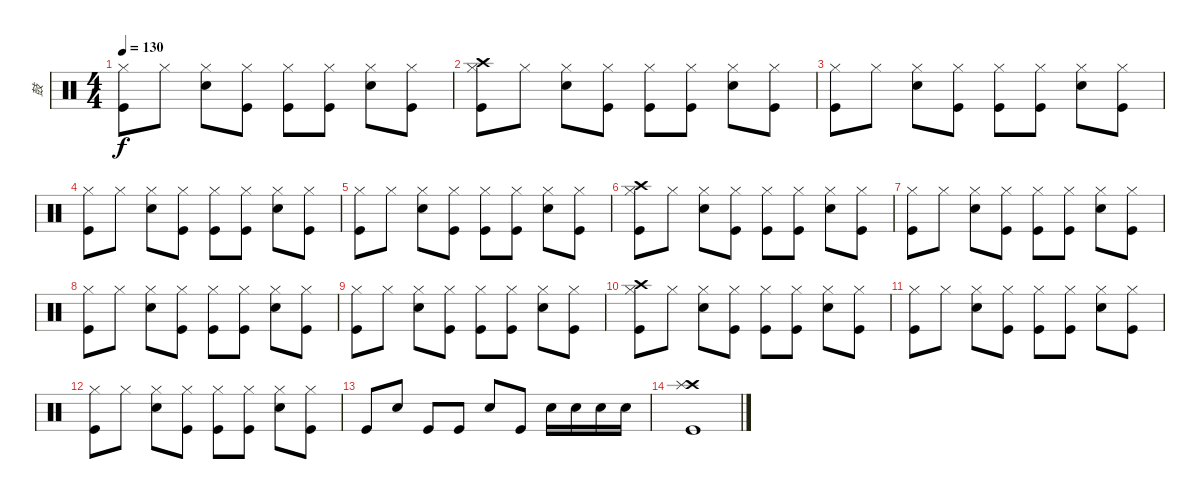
\track ("鼓" "鼓") {instrument percussion}
\staff {score}
\articulation defaults
\ts (4 4)
\tempo 130
\clef neutral
\ks c
("Hi-Hat (closed)" "Kick (hit)").8{dy f} "Hi-Hat (closed)".8 ("Hi-Hat (closed)" "Snare (hit) 2").8 ("Hi-Hat (closed)" "Kick (hit)").8 ("Hi-Hat (closed)" "Kick (hit)").8 ("Hi-Hat (closed)" "Kick (hit)").8 ("Hi-Hat (closed)" "Snare (hit) 2").8 ("Hi-Hat (closed)" "Kick (hit)").8 |
("Crash high (hit)" "Hi-Hat (closed)" "Kick (hit)").8 "Hi-Hat (closed)".8 ("Hi-Hat (closed)" "Snare (hit) 2").8 ("Hi-Hat (closed)" "Kick (hit)").8 ("Hi-Hat (closed)" "Kick (hit)").8 ("Hi-Hat (closed)" "Kick (hit)").8 ("Hi-Hat (closed)" "Snare (hit) 2").8 ("Hi-Hat (closed)" "Kick (hit)").8 |
("Hi-Hat (closed)" "Kick (hit)").8 "Hi-Hat (closed)".8 ("Hi-Hat (closed)" "Snare (hit) 2").8 ("Hi-Hat (closed)" "Kick (hit)").8 ("Hi-Hat (closed)" "Kick (hit)").8 ("Hi-Hat (closed)" "Kick (hit)").8 ("Hi-Hat (closed)" "Snare (hit) 2").8 ("Hi-Hat (closed)" "Kick (hit)").8 |
("Hi-Hat (closed)" "Kick (hit)").8 "Hi-Hat (closed)".8 ("Hi-Hat (closed)" "Snare (hit) 2").8 ("Hi-Hat (closed)" "Kick (hit)").8 ("Hi-Hat (closed)" "Kick (hit)").8 ("Hi-Hat (closed)" "Kick (hit)").8 ("Hi-Hat (closed)" "Snare (hit) 2").8 ("Hi-Hat (closed)" "Kick (hit)").8 |
("Hi-Hat (closed)" "Kick (hit)").8 "Hi-Hat (closed)".8 ("Hi-Hat (closed)" "Snare (hit) 2").8 ("Hi-Hat (closed)" "Kick (hit)").8 ("Hi-Hat (closed)" "Kick (hit)").8 ("Hi-Hat (closed)" "Kick (hit)").8 ("Hi-Hat (closed)" "Snare (hit) 2").8 ("Hi-Hat (closed)" "Kick (hit)").8 |
("Crash high (hit)" "Hi-Hat (closed)" "Kick (hit)").8 "Hi-Hat (closed)".8 ("Hi-Hat (closed)" "Snare (hit) 2").8 ("Hi-Hat (closed)" "Kick (hit)").8 ("Hi-Hat (closed)" "Kick (hit)").8 ("Hi-Hat (closed)" "Kick (hit)").8 ("Hi-Hat (closed)" "Snare (hit) 2").8 ("Hi-Hat (closed)" "Kick (hit)").8 |
("Hi-Hat (closed)" "Kick (hit)").8 "Hi-Hat (closed)".8 ("Hi-Hat (closed)" "Snare (hit) 2").8 ("Hi-Hat (closed)" "Kick (hit)").8 ("Hi-Hat (closed)" "Kick (hit)").8 ("Hi-Hat (closed)" "Kick (hit)").8 ("Hi-Hat (closed)" "Snare (hit) 2").8 ("Hi-Hat (closed)" "Kick (hit)").8 |
("Hi-Hat (closed)" "Kick (hit)").8 "Hi-Hat (closed)".8 ("Hi-Hat (closed)" "Snare (hit) 2").8 ("Hi-Hat (closed)" "Kick (hit)").8 ("Hi-Hat (closed)" "Kick (hit)").8 ("Hi-Hat (closed)" "Kick (hit)").8 ("Hi-Hat (closed)" "Snare (hit) 2").8 ("Hi-Hat (closed)" "Kick (hit)").8 |
("Hi-Hat (closed)" "Kick (hit)").8 "Hi-Hat (closed)".8 ("Hi-Hat (closed)" "Snare (hit) 2").8 ("Hi-Hat (closed)" "Kick (hit)").8 ("Hi-Hat (closed)" "Kick (hit)").8 ("Hi-Hat (closed)" "Kick (hit)").8 ("Hi-Hat (closed)" "Snare (hit) 2").8 ("Hi-Hat (closed)" "Kick (hit)").8 |
("Crash high (hit)" "Hi-Hat (closed)" "Kick (hit)").8 "Hi-Hat (closed)".8 ("Hi-Hat (closed)" "Snare (hit) 2").8 ("Hi-Hat (closed)" "Kick (hit)").8 ("Hi-Hat (closed)" "Kick (hit)").8 ("Hi-Hat (closed)" "Kick (hit)").8 ("Hi-Hat (closed)" "Snare (hit) 2").8 ("Hi-Hat (closed)" "Kick (hit)").8 |
("Hi-Hat (closed)" "Kick (hit)").8 "Hi-Hat (closed)".8 ("Hi-Hat (closed)" "Snare (hit) 2").8 ("Hi-Hat (closed)" "Kick (hit)").8 ("Hi-Hat (closed)" "Kick (hit)").8 ("Hi-Hat (closed)" "Kick (hit)").8 ("Hi-Hat (closed)" "Snare (hit) 2").8 ("Hi-Hat (closed)" "Kick (hit)").8 |
("Hi-Hat (closed)" "Kick (hit)").8 "Hi-Hat (closed)".8 ("Hi-Hat (closed)" "Snare (hit) 2").8 ("Hi-Hat (closed)" "Kick (hit)").8 ("Hi-Hat (closed)" "Kick (hit)").8 ("Hi-Hat (closed)" "Kick (hit)").8 ("Hi-Hat (closed)" "Snare (hit) 2").8 ("Hi-Hat (closed)" "Kick (hit)").8 |
"Kick (hit)".8 "Snare (hit) 2".8 "Kick (hit)".8 "Kick (hit)".8 "Snare (hit) 2".8 "Kick (hit)".8 "Snare (hit) 2".16 "Snare (hit) 2".16 "Snare (hit) 2".16 "Snare (hit) 2".16 |
("Crash high (hit)" "Splash (hit)" "Kick (hit)").1
